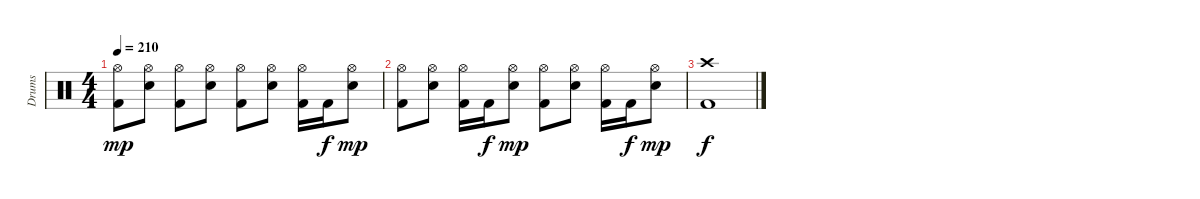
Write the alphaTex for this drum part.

\track ("Drums" "Drums") {instrument percussion}
\staff {score}
\articulation defaults
\ts (4 4)
\tempo 210
\clef neutral
\ks c
("Hi-Hat (open)" "Kick (hit) 2").8{dy mp} ("Hi-Hat (open)" "Snare (hit) 2").8 ("Hi-Hat (open)" "Kick (hit) 2").8 ("Hi-Hat (open)" "Snare (hit) 2").8 ("Hi-Hat (open)" "Kick (hit) 2").8 ("Hi-Hat (open)" "Snare (hit) 2").8 ("Hi-Hat (open)" "Kick (hit) 2").16 "Kick (hit) 2".16{dy f} ("Hi-Hat (open)" "Snare (hit) 2").8{dy mp} |
("Hi-Hat (open)" "Kick (hit) 2").8 ("Hi-Hat (open)" "Snare (hit) 2").8 ("Hi-Hat (open)" "Kick (hit) 2").16 "Kick (hit) 2".16{dy f} ("Hi-Hat (open)" "Snare (hit) 2").8{dy mp} ("Hi-Hat (open)" "Kick (hit) 2").8 ("Hi-Hat (open)" "Snare (hit) 2").8 ("Hi-Hat (open)" "Kick (hit) 2").16 "Kick (hit) 2".16{dy f} ("Hi-Hat (open)" "Snare (hit) 2").8{dy mp} |
("Crash high (hit)" "Kick (hit) 2").1{dy f}
